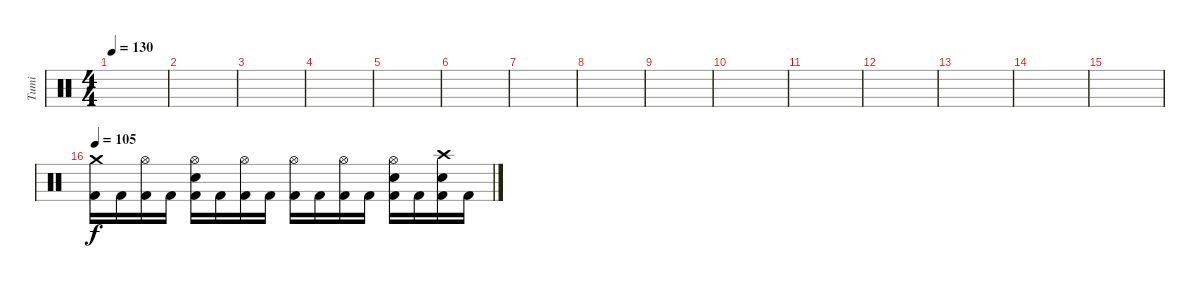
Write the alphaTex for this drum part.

\track ("Tumi" "Tumi") {instrument percussion}
\staff {score}
\articulation defaults
\ts (4 4)
\tempo 130
\clef neutral
\ks c
|
|
|
|
|
|
|
|
|
|
|
|
|
|
|
\tempo 105
("Crash medium (hit)" "Kick (hit) 2").16 "Kick (hit) 2".16 ("Hi-Hat (open)" "Kick (hit) 2").16 "Kick (hit) 2".16 ("Hi-Hat (open)" "Electric Snare (hit)" "Kick (hit) 2").16 "Kick (hit) 2".16 ("Hi-Hat (open)" "Kick (hit) 2").16 "Kick (hit) 2".16 ("Hi-Hat (open)" "Kick (hit) 2").16 "Kick (hit) 2".16 ("Hi-Hat (open)" "Kick (hit) 2").16 "Kick (hit) 2".16 ("Hi-Hat (open)" "Electric Snare (hit)" "Kick (hit) 2").16 "Kick (hit) 2".16 ("Electric Snare (hit)" "Crash high (hit)" "Kick (hit) 2").16 "Kick (hit) 2".16
